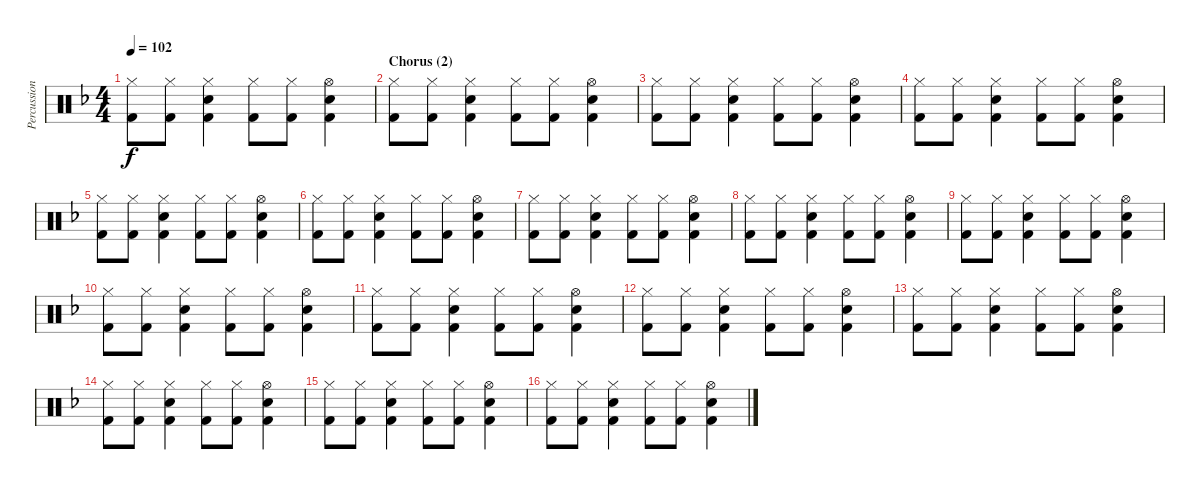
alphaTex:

\track ("Percussion" "Percussion") {instrument percussion}
\staff {score}
\articulation defaults
\ts (4 4)
\tempo 102
\clef neutral
\ks dminor
("Hi-Hat (closed)" "Kick (hit) 2").8{dy f} ("Hi-Hat (closed)" "Kick (hit) 2").8 ("Hi-Hat (closed)" "Kick (hit) 2" "Snare (hit) 2").4 ("Hi-Hat (closed)" "Kick (hit) 2").8 ("Hi-Hat (closed)" "Kick (hit) 2").8 ("Hi-Hat (open)" "Kick (hit) 2" "Snare (hit) 2").4 |
\section ("" "Chorus (2)")
("Hi-Hat (closed)" "Kick (hit) 2").8 ("Hi-Hat (closed)" "Kick (hit) 2").8 ("Hi-Hat (closed)" "Kick (hit) 2" "Snare (hit) 2").4 ("Hi-Hat (closed)" "Kick (hit) 2").8 ("Hi-Hat (closed)" "Kick (hit) 2").8 ("Hi-Hat (open)" "Kick (hit) 2" "Snare (hit) 2").4 |
("Hi-Hat (closed)" "Kick (hit) 2").8 ("Hi-Hat (closed)" "Kick (hit) 2").8 ("Hi-Hat (closed)" "Kick (hit) 2" "Snare (hit) 2").4 ("Hi-Hat (closed)" "Kick (hit) 2").8 ("Hi-Hat (closed)" "Kick (hit) 2").8 ("Hi-Hat (open)" "Kick (hit) 2" "Snare (hit) 2").4 |
("Hi-Hat (closed)" "Kick (hit) 2").8 ("Hi-Hat (closed)" "Kick (hit) 2").8 ("Hi-Hat (closed)" "Kick (hit) 2" "Snare (hit) 2").4 ("Hi-Hat (closed)" "Kick (hit) 2").8 ("Hi-Hat (closed)" "Kick (hit) 2").8 ("Hi-Hat (open)" "Kick (hit) 2" "Snare (hit) 2").4 |
("Hi-Hat (closed)" "Kick (hit) 2").8 ("Hi-Hat (closed)" "Kick (hit) 2").8 ("Hi-Hat (closed)" "Kick (hit) 2" "Snare (hit) 2").4 ("Hi-Hat (closed)" "Kick (hit) 2").8 ("Hi-Hat (closed)" "Kick (hit) 2").8 ("Hi-Hat (open)" "Kick (hit) 2" "Snare (hit) 2").4 |
("Hi-Hat (closed)" "Kick (hit) 2").8 ("Hi-Hat (closed)" "Kick (hit) 2").8 ("Hi-Hat (closed)" "Kick (hit) 2" "Snare (hit) 2").4 ("Hi-Hat (closed)" "Kick (hit) 2").8 ("Hi-Hat (closed)" "Kick (hit) 2").8 ("Hi-Hat (open)" "Kick (hit) 2" "Snare (hit) 2").4 |
("Hi-Hat (closed)" "Kick (hit) 2").8 ("Hi-Hat (closed)" "Kick (hit) 2").8 ("Hi-Hat (closed)" "Kick (hit) 2" "Snare (hit) 2").4 ("Hi-Hat (closed)" "Kick (hit) 2").8 ("Hi-Hat (closed)" "Kick (hit) 2").8 ("Hi-Hat (open)" "Kick (hit) 2" "Snare (hit) 2").4 |
("Hi-Hat (closed)" "Kick (hit) 2").8 ("Hi-Hat (closed)" "Kick (hit) 2").8 ("Hi-Hat (closed)" "Kick (hit) 2" "Snare (hit) 2").4 ("Hi-Hat (closed)" "Kick (hit) 2").8 ("Hi-Hat (closed)" "Kick (hit) 2").8 ("Hi-Hat (open)" "Kick (hit) 2" "Snare (hit) 2").4 |
("Hi-Hat (closed)" "Kick (hit) 2").8 ("Hi-Hat (closed)" "Kick (hit) 2").8 ("Hi-Hat (closed)" "Kick (hit) 2" "Snare (hit) 2").4 ("Hi-Hat (closed)" "Kick (hit) 2").8 ("Hi-Hat (closed)" "Kick (hit) 2").8 ("Hi-Hat (open)" "Kick (hit) 2" "Snare (hit) 2").4 |
("Hi-Hat (closed)" "Kick (hit) 2").8 ("Hi-Hat (closed)" "Kick (hit) 2").8 ("Hi-Hat (closed)" "Kick (hit) 2" "Snare (hit) 2").4 ("Hi-Hat (closed)" "Kick (hit) 2").8 ("Hi-Hat (closed)" "Kick (hit) 2").8 ("Hi-Hat (open)" "Kick (hit) 2" "Snare (hit) 2").4 |
("Hi-Hat (closed)" "Kick (hit) 2").8 ("Hi-Hat (closed)" "Kick (hit) 2").8 ("Hi-Hat (closed)" "Kick (hit) 2" "Snare (hit) 2").4 ("Hi-Hat (closed)" "Kick (hit) 2").8 ("Hi-Hat (closed)" "Kick (hit) 2").8 ("Hi-Hat (open)" "Kick (hit) 2" "Snare (hit) 2").4 |
("Hi-Hat (closed)" "Kick (hit) 2").8 ("Hi-Hat (closed)" "Kick (hit) 2").8 ("Hi-Hat (closed)" "Kick (hit) 2" "Snare (hit) 2").4 ("Hi-Hat (closed)" "Kick (hit) 2").8 ("Hi-Hat (closed)" "Kick (hit) 2").8 ("Hi-Hat (open)" "Kick (hit) 2" "Snare (hit) 2").4 |
("Hi-Hat (closed)" "Kick (hit) 2").8 ("Hi-Hat (closed)" "Kick (hit) 2").8 ("Hi-Hat (closed)" "Kick (hit) 2" "Snare (hit) 2").4 ("Hi-Hat (closed)" "Kick (hit) 2").8 ("Hi-Hat (closed)" "Kick (hit) 2").8 ("Hi-Hat (open)" "Kick (hit) 2" "Snare (hit) 2").4 |
("Hi-Hat (closed)" "Kick (hit) 2").8 ("Hi-Hat (closed)" "Kick (hit) 2").8 ("Hi-Hat (closed)" "Kick (hit) 2" "Snare (hit) 2").4 ("Hi-Hat (closed)" "Kick (hit) 2").8 ("Hi-Hat (closed)" "Kick (hit) 2").8 ("Hi-Hat (open)" "Kick (hit) 2" "Snare (hit) 2").4 |
("Hi-Hat (closed)" "Kick (hit) 2").8 ("Hi-Hat (closed)" "Kick (hit) 2").8 ("Hi-Hat (closed)" "Kick (hit) 2" "Snare (hit) 2").4 ("Hi-Hat (closed)" "Kick (hit) 2").8 ("Hi-Hat (closed)" "Kick (hit) 2").8 ("Hi-Hat (open)" "Kick (hit) 2" "Snare (hit) 2").4 |
("Hi-Hat (closed)" "Kick (hit) 2").8 ("Hi-Hat (closed)" "Kick (hit) 2").8 ("Hi-Hat (closed)" "Kick (hit) 2" "Snare (hit) 2").4 ("Hi-Hat (closed)" "Kick (hit) 2").8 ("Hi-Hat (closed)" "Kick (hit) 2").8 ("Hi-Hat (open)" "Kick (hit) 2" "Snare (hit) 2").4
